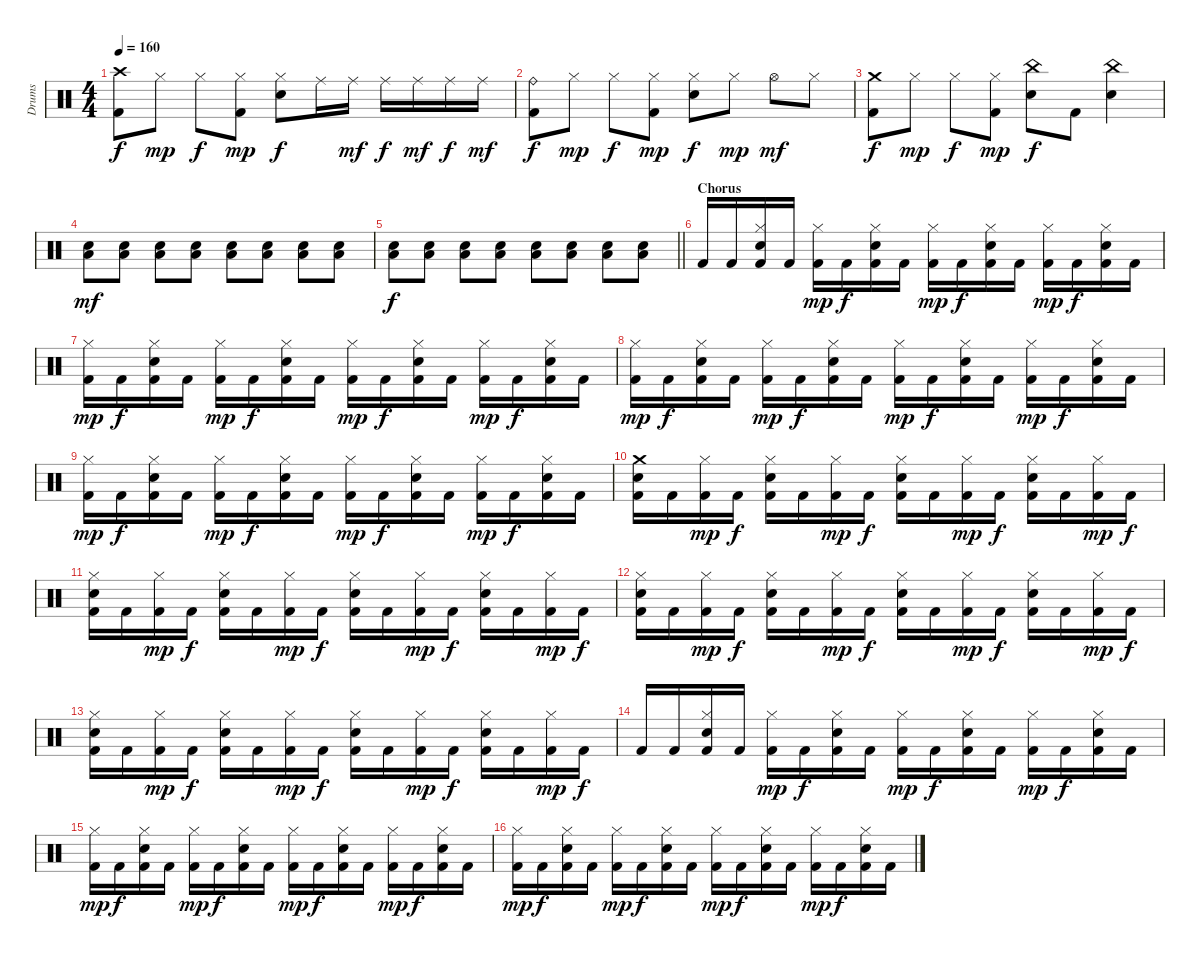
\track ("Drums" "Drums") {instrument percussion}
\staff {score}
\articulation defaults
\ts (4 4)
\tempo 160
\clef neutral
\ks c
("Kick (hit) 2" "Crash high (hit)").8{dy f} "Hi-Hat (closed)".8{dy mp} "Hi-Hat (closed)".8{dy f} ("Kick (hit) 2" "Hi-Hat (closed)").8{dy mp} ("Hi-Hat (closed)" "Electric Snare (hit)").8{dy f} "Ride (middle)".16 "Ride (middle)".16{dy mf} "Ride (middle)".16{dy f} "Ride (middle)".16{dy mf} "Ride (middle)".16{dy f} "Ride (middle)".16{dy mf} |
("Kick (hit) 2" "Ride (bell)").8{dy f} "Hi-Hat (closed)".8{dy mp} "Hi-Hat (closed)".8{dy f} ("Kick (hit) 2" "Hi-Hat (closed)").8{dy mp} ("Hi-Hat (closed)" "Electric Snare (hit)").8{dy f} "Hi-Hat (closed)".8{dy mp} "Hi-Hat (open)".8{dy mf} "Hi-Hat (closed)".8 |
("Kick (hit) 2" "Crash medium (hit)").8{dy f} "Hi-Hat (closed)".8{dy mp} "Hi-Hat (closed)".8{dy f} ("Kick (hit) 2" "Hi-Hat (closed)").8{dy mp} ("China (hit)" "Electric Snare (hit)").8{dy f} "Kick (hit) 2".8 ("China (hit)" "Electric Snare (hit)").4 |
("Low Tom (hit)" "Electric Snare (hit)").8{dy mf} ("Low Tom (hit)" "Electric Snare (hit)").8 ("Low Tom (hit)" "Electric Snare (hit)").8 ("Low Tom (hit)" "Electric Snare (hit)").8 ("Low Tom (hit)" "Electric Snare (hit)").8 ("Low Tom (hit)" "Electric Snare (hit)").8 ("Low Tom (hit)" "Electric Snare (hit)").8 ("Low Tom (hit)" "Electric Snare (hit)").8 |
\barLineRight lightlight
("Low Tom (hit)" "Electric Snare (hit)").8{dy f} ("Low Tom (hit)" "Electric Snare (hit)").8 ("Low Tom (hit)" "Electric Snare (hit)").8 ("Low Tom (hit)" "Electric Snare (hit)").8 ("Low Tom (hit)" "Electric Snare (hit)").8 ("Low Tom (hit)" "Electric Snare (hit)").8 ("Low Tom (hit)" "Electric Snare (hit)").8 ("Low Tom (hit)" "Electric Snare (hit)").8 |
\section ("" "Chorus")
"Kick (hit) 2".16 "Kick (hit) 2".16 ("Kick (hit) 2" "Hi-Hat (closed)" "Electric Snare (hit)").16 "Kick (hit) 2".16 ("Kick (hit) 2" "Hi-Hat (closed)").16{dy mp} "Kick (hit) 2".16{dy f} ("Kick (hit) 2" "Hi-Hat (closed)" "Electric Snare (hit)").16 "Kick (hit) 2".16 ("Kick (hit) 2" "Hi-Hat (closed)").16{dy mp} "Kick (hit) 2".16{dy f} ("Kick (hit) 2" "Hi-Hat (closed)" "Electric Snare (hit)").16 "Kick (hit) 2".16 ("Kick (hit) 2" "Hi-Hat (closed)").16{dy mp} "Kick (hit) 2".16{dy f} ("Kick (hit) 2" "Hi-Hat (closed)" "Electric Snare (hit)").16 "Kick (hit) 2".16 |
("Kick (hit) 2" "Hi-Hat (closed)").16{dy mp} "Kick (hit) 2".16{dy f} ("Kick (hit) 2" "Hi-Hat (closed)" "Electric Snare (hit)").16 "Kick (hit) 2".16 ("Kick (hit) 2" "Hi-Hat (closed)").16{dy mp} "Kick (hit) 2".16{dy f} ("Kick (hit) 2" "Hi-Hat (closed)" "Electric Snare (hit)").16 "Kick (hit) 2".16 ("Kick (hit) 2" "Hi-Hat (closed)").16{dy mp} "Kick (hit) 2".16{dy f} ("Kick (hit) 2" "Hi-Hat (closed)" "Electric Snare (hit)").16 "Kick (hit) 2".16 ("Kick (hit) 2" "Hi-Hat (closed)").16{dy mp} "Kick (hit) 2".16{dy f} ("Kick (hit) 2" "Hi-Hat (closed)" "Electric Snare (hit)").16 "Kick (hit) 2".16 |
("Kick (hit) 2" "Hi-Hat (closed)").16{dy mp} "Kick (hit) 2".16{dy f} ("Kick (hit) 2" "Hi-Hat (closed)" "Electric Snare (hit)").16 "Kick (hit) 2".16 ("Kick (hit) 2" "Hi-Hat (closed)").16{dy mp} "Kick (hit) 2".16{dy f} ("Kick (hit) 2" "Hi-Hat (closed)" "Electric Snare (hit)").16 "Kick (hit) 2".16 ("Kick (hit) 2" "Hi-Hat (closed)").16{dy mp} "Kick (hit) 2".16{dy f} ("Kick (hit) 2" "Hi-Hat (closed)" "Electric Snare (hit)").16 "Kick (hit) 2".16 ("Kick (hit) 2" "Hi-Hat (closed)").16{dy mp} "Kick (hit) 2".16{dy f} ("Kick (hit) 2" "Hi-Hat (closed)" "Electric Snare (hit)").16 "Kick (hit) 2".16 |
("Kick (hit) 2" "Hi-Hat (closed)").16{dy mp} "Kick (hit) 2".16{dy f} ("Kick (hit) 2" "Hi-Hat (closed)" "Electric Snare (hit)").16 "Kick (hit) 2".16 ("Kick (hit) 2" "Hi-Hat (closed)").16{dy mp} "Kick (hit) 2".16{dy f} ("Kick (hit) 2" "Hi-Hat (closed)" "Electric Snare (hit)").16 "Kick (hit) 2".16 ("Kick (hit) 2" "Hi-Hat (closed)").16{dy mp} "Kick (hit) 2".16{dy f} ("Kick (hit) 2" "Hi-Hat (closed)" "Electric Snare (hit)").16 "Kick (hit) 2".16 ("Kick (hit) 2" "Hi-Hat (closed)").16{dy mp} "Kick (hit) 2".16{dy f} ("Kick (hit) 2" "Hi-Hat (closed)" "Electric Snare (hit)").16 "Kick (hit) 2".16 |
("Kick (hit) 2" "Crash medium (hit)" "Electric Snare (hit)").16 "Kick (hit) 2".16 ("Kick (hit) 2" "Hi-Hat (closed)").16{dy mp} "Kick (hit) 2".16{dy f} ("Kick (hit) 2" "Hi-Hat (closed)" "Electric Snare (hit)").16 "Kick (hit) 2".16 ("Kick (hit) 2" "Hi-Hat (closed)").16{dy mp} "Kick (hit) 2".16{dy f} ("Kick (hit) 2" "Hi-Hat (closed)" "Electric Snare (hit)").16 "Kick (hit) 2".16 ("Kick (hit) 2" "Hi-Hat (closed)").16{dy mp} "Kick (hit) 2".16{dy f} ("Kick (hit) 2" "Hi-Hat (closed)" "Electric Snare (hit)").16 "Kick (hit) 2".16 ("Kick (hit) 2" "Hi-Hat (closed)").16{dy mp} "Kick (hit) 2".16{dy f} |
("Kick (hit) 2" "Hi-Hat (closed)" "Electric Snare (hit)").16 "Kick (hit) 2".16 ("Kick (hit) 2" "Hi-Hat (closed)").16{dy mp} "Kick (hit) 2".16{dy f} ("Kick (hit) 2" "Hi-Hat (closed)" "Electric Snare (hit)").16 "Kick (hit) 2".16 ("Kick (hit) 2" "Hi-Hat (closed)").16{dy mp} "Kick (hit) 2".16{dy f} ("Kick (hit) 2" "Hi-Hat (closed)" "Electric Snare (hit)").16 "Kick (hit) 2".16 ("Kick (hit) 2" "Hi-Hat (closed)").16{dy mp} "Kick (hit) 2".16{dy f} ("Kick (hit) 2" "Hi-Hat (closed)" "Electric Snare (hit)").16 "Kick (hit) 2".16 ("Kick (hit) 2" "Hi-Hat (closed)").16{dy mp} "Kick (hit) 2".16{dy f} |
("Kick (hit) 2" "Hi-Hat (closed)" "Electric Snare (hit)").16 "Kick (hit) 2".16 ("Kick (hit) 2" "Hi-Hat (closed)").16{dy mp} "Kick (hit) 2".16{dy f} ("Kick (hit) 2" "Hi-Hat (closed)" "Electric Snare (hit)").16 "Kick (hit) 2".16 ("Kick (hit) 2" "Hi-Hat (closed)").16{dy mp} "Kick (hit) 2".16{dy f} ("Kick (hit) 2" "Hi-Hat (closed)" "Electric Snare (hit)").16 "Kick (hit) 2".16 ("Kick (hit) 2" "Hi-Hat (closed)").16{dy mp} "Kick (hit) 2".16{dy f} ("Kick (hit) 2" "Hi-Hat (closed)" "Electric Snare (hit)").16 "Kick (hit) 2".16 ("Kick (hit) 2" "Hi-Hat (closed)").16{dy mp} "Kick (hit) 2".16{dy f} |
("Kick (hit) 2" "Hi-Hat (closed)" "Electric Snare (hit)").16 "Kick (hit) 2".16 ("Kick (hit) 2" "Hi-Hat (closed)").16{dy mp} "Kick (hit) 2".16{dy f} ("Kick (hit) 2" "Hi-Hat (closed)" "Electric Snare (hit)").16 "Kick (hit) 2".16 ("Kick (hit) 2" "Hi-Hat (closed)").16{dy mp} "Kick (hit) 2".16{dy f} ("Kick (hit) 2" "Hi-Hat (closed)" "Electric Snare (hit)").16 "Kick (hit) 2".16 ("Kick (hit) 2" "Hi-Hat (closed)").16{dy mp} "Kick (hit) 2".16{dy f} ("Kick (hit) 2" "Hi-Hat (closed)" "Electric Snare (hit)").16 "Kick (hit) 2".16 ("Kick (hit) 2" "Hi-Hat (closed)").16{dy mp} "Kick (hit) 2".16{dy f} |
"Kick (hit) 2".16 "Kick (hit) 2".16 ("Kick (hit) 2" "Hi-Hat (closed)" "Electric Snare (hit)").16 "Kick (hit) 2".16 ("Kick (hit) 2" "Hi-Hat (closed)").16{dy mp} "Kick (hit) 2".16{dy f} ("Kick (hit) 2" "Hi-Hat (closed)" "Electric Snare (hit)").16 "Kick (hit) 2".16 ("Kick (hit) 2" "Hi-Hat (closed)").16{dy mp} "Kick (hit) 2".16{dy f} ("Kick (hit) 2" "Hi-Hat (closed)" "Electric Snare (hit)").16 "Kick (hit) 2".16 ("Kick (hit) 2" "Hi-Hat (closed)").16{dy mp} "Kick (hit) 2".16{dy f} ("Kick (hit) 2" "Hi-Hat (closed)" "Electric Snare (hit)").16 "Kick (hit) 2".16 |
("Kick (hit) 2" "Hi-Hat (closed)").16{dy mp} "Kick (hit) 2".16{dy f} ("Kick (hit) 2" "Hi-Hat (closed)" "Electric Snare (hit)").16 "Kick (hit) 2".16 ("Kick (hit) 2" "Hi-Hat (closed)").16{dy mp} "Kick (hit) 2".16{dy f} ("Kick (hit) 2" "Hi-Hat (closed)" "Electric Snare (hit)").16 "Kick (hit) 2".16 ("Kick (hit) 2" "Hi-Hat (closed)").16{dy mp} "Kick (hit) 2".16{dy f} ("Kick (hit) 2" "Hi-Hat (closed)" "Electric Snare (hit)").16 "Kick (hit) 2".16 ("Kick (hit) 2" "Hi-Hat (closed)").16{dy mp} "Kick (hit) 2".16{dy f} ("Kick (hit) 2" "Hi-Hat (closed)" "Electric Snare (hit)").16 "Kick (hit) 2".16 |
("Kick (hit) 2" "Hi-Hat (closed)").16{dy mp} "Kick (hit) 2".16{dy f} ("Kick (hit) 2" "Hi-Hat (closed)" "Electric Snare (hit)").16 "Kick (hit) 2".16 ("Kick (hit) 2" "Hi-Hat (closed)").16{dy mp} "Kick (hit) 2".16{dy f} ("Kick (hit) 2" "Hi-Hat (closed)" "Electric Snare (hit)").16 "Kick (hit) 2".16 ("Kick (hit) 2" "Hi-Hat (closed)").16{dy mp} "Kick (hit) 2".16{dy f} ("Kick (hit) 2" "Hi-Hat (closed)" "Electric Snare (hit)").16 "Kick (hit) 2".16 ("Kick (hit) 2" "Hi-Hat (closed)").16{dy mp} "Kick (hit) 2".16{dy f} ("Kick (hit) 2" "Hi-Hat (closed)" "Electric Snare (hit)").16 "Kick (hit) 2".16
